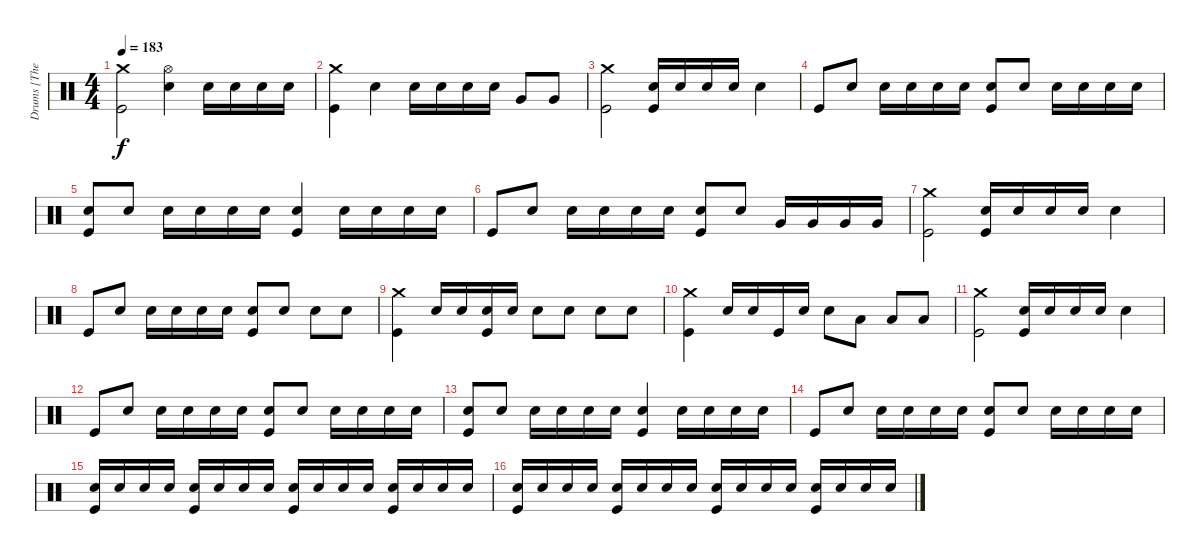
\track ("Drums [The Rev]" "Drums [The") {instrument percussion}
\staff {score}
\articulation defaults
\ts (4 4)
\tempo 183
\clef neutral
\ks c
("Crash medium (hit)" "Kick (hit)").2{dy f} ("Hi-Hat (open)" "Snare (hit) 2").4 "Snare (hit) 2".16 "Snare (hit) 2".16 "Snare (hit) 2".16 "Snare (hit) 2".16 |
("Crash medium (hit)" "Kick (hit)").4 "Snare (hit) 2".4 "Snare (hit) 2".16 "Snare (hit) 2".16 "Snare (hit) 2".16 "Snare (hit) 2".16 "Very Low Tom (hit)".8 "Very Low Tom (hit)".8 |
("Crash medium (hit)" "Kick (hit)").2 ("Snare (hit) 2" "Kick (hit)").16 "Snare (hit) 2".16 "Snare (hit) 2".16 "Snare (hit) 2".16 "Snare (hit) 2".4 |
"Kick (hit)".8 "Snare (hit) 2".8 "Snare (hit) 2".16 "Snare (hit) 2".16 "Snare (hit) 2".16 "Snare (hit) 2".16 ("Snare (hit) 2" "Kick (hit)").8 "Snare (hit) 2".8 "Snare (hit) 2".16 "Snare (hit) 2".16 "Snare (hit) 2".16 "Snare (hit) 2".16 |
("Snare (hit) 2" "Kick (hit)").8 "Snare (hit) 2".8 "Snare (hit) 2".16 "Snare (hit) 2".16 "Snare (hit) 2".16 "Snare (hit) 2".16 ("Snare (hit) 2" "Kick (hit)").4 "Snare (hit) 2".16 "Snare (hit) 2".16 "Snare (hit) 2".16 "Snare (hit) 2".16 |
"Kick (hit)".8 "Snare (hit) 2".8 "Snare (hit) 2".16 "Snare (hit) 2".16 "Snare (hit) 2".16 "Snare (hit) 2".16 ("Snare (hit) 2" "Kick (hit)").8 "Snare (hit) 2".8 "Very Low Tom (hit)".16 "Very Low Tom (hit)".16 "Very Low Tom (hit)".16 "Very Low Tom (hit)".16 |
("Crash medium (hit)" "Kick (hit)").2 ("Snare (hit) 2" "Kick (hit)").16 "Snare (hit) 2".16 "Snare (hit) 2".16 "Snare (hit) 2".16 "Snare (hit) 2".4 |
"Kick (hit)".8 "Snare (hit) 2".8 "Snare (hit) 2".16 "Snare (hit) 2".16 "Snare (hit) 2".16 "Snare (hit) 2".16 ("Snare (hit) 2" "Kick (hit)").8 "Snare (hit) 2".8 "Snare (hit) 2".8 "Snare (hit) 2".8 |
("Crash medium (hit)" "Kick (hit)").4 "Snare (hit) 2".16 "Snare (hit) 2".16 ("Snare (hit) 2" "Kick (hit)").16 "Snare (hit) 2".16 "Snare (hit) 2".8 "Snare (hit) 2".8 "Snare (hit) 2".8 "Snare (hit) 2".8 |
("Crash medium (hit)" "Kick (hit)").4 "Snare (hit) 2".16 "Snare (hit) 2".16 "Kick (hit)".16 "Snare (hit) 2".16 "Snare (hit) 2".8 "Low Floor Tom (hit)".8 "Low Floor Tom (hit)".8 "Low Floor Tom (hit)".8 |
("Crash medium (hit)" "Kick (hit)").2 ("Snare (hit) 2" "Kick (hit)").16 "Snare (hit) 2".16 "Snare (hit) 2".16 "Snare (hit) 2".16 "Snare (hit) 2".4 |
"Kick (hit)".8 "Snare (hit) 2".8 "Snare (hit) 2".16 "Snare (hit) 2".16 "Snare (hit) 2".16 "Snare (hit) 2".16 ("Snare (hit) 2" "Kick (hit)").8 "Snare (hit) 2".8 "Snare (hit) 2".16 "Snare (hit) 2".16 "Snare (hit) 2".16 "Snare (hit) 2".16 |
("Snare (hit) 2" "Kick (hit)").8 "Snare (hit) 2".8 "Snare (hit) 2".16 "Snare (hit) 2".16 "Snare (hit) 2".16 "Snare (hit) 2".16 ("Snare (hit) 2" "Kick (hit)").4 "Snare (hit) 2".16 "Snare (hit) 2".16 "Snare (hit) 2".16 "Snare (hit) 2".16 |
"Kick (hit)".8 "Snare (hit) 2".8 "Snare (hit) 2".16 "Snare (hit) 2".16 "Snare (hit) 2".16 "Snare (hit) 2".16 ("Snare (hit) 2" "Kick (hit)").8 "Snare (hit) 2".8 "Snare (hit) 2".16 "Snare (hit) 2".16 "Snare (hit) 2".16 "Snare (hit) 2".16 |
("Snare (hit) 2" "Kick (hit)").16 "Snare (hit) 2".16 "Snare (hit) 2".16 "Snare (hit) 2".16 ("Snare (hit) 2" "Kick (hit)").16 "Snare (hit) 2".16 "Snare (hit) 2".16 "Snare (hit) 2".16 ("Snare (hit) 2" "Kick (hit)").16 "Snare (hit) 2".16 "Snare (hit) 2".16 "Snare (hit) 2".16 ("Snare (hit) 2" "Kick (hit)").16 "Snare (hit) 2".16 "Snare (hit) 2".16 "Snare (hit) 2".16 |
("Snare (hit) 2" "Kick (hit)").16 "Snare (hit) 2".16 "Snare (hit) 2".16 "Snare (hit) 2".16 ("Snare (hit) 2" "Kick (hit)").16 "Snare (hit) 2".16 "Snare (hit) 2".16 "Snare (hit) 2".16 ("Snare (hit) 2" "Kick (hit)").16 "Snare (hit) 2".16 "Snare (hit) 2".16 "Snare (hit) 2".16 ("Snare (hit) 2" "Kick (hit)").16 "Snare (hit) 2".16 "Snare (hit) 2".16 "Snare (hit) 2".16
